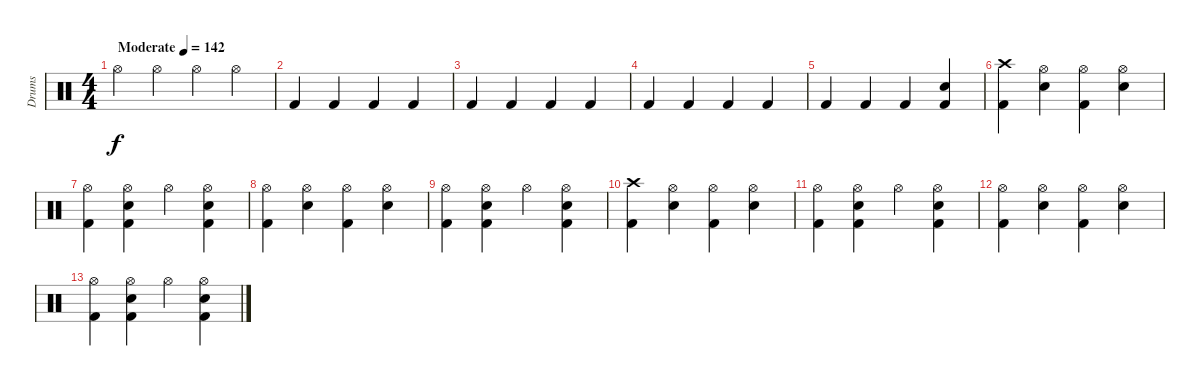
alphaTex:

\track ("Drums" "Drums") {instrument percussion}
\staff {score}
\articulation defaults
\ts (4 4)
\tempo (142 "Moderate")
\clef neutral
\ks c "Hi-Hat (open)".4{dy f} "Hi-Hat (open)".4 "Hi-Hat (open)".4 "Hi-Hat (open)".4
|
"Kick (hit) 2".4 "Kick (hit) 2".4 "Kick (hit) 2".4 "Kick (hit) 2".4 |
"Kick (hit) 2".4 "Kick (hit) 2".4 "Kick (hit) 2".4 "Kick (hit) 2".4 |
"Kick (hit) 2".4 "Kick (hit) 2".4 "Kick (hit) 2".4 "Kick (hit) 2".4 |
"Kick (hit) 2".4 "Kick (hit) 2".4 "Kick (hit) 2".4 ("Snare (hit) 2" "Kick (hit) 2").4 |
("Crash high (hit)" "Kick (hit) 2").4 ("Snare (hit) 2" "Hi-Hat (open)").4 ("Hi-Hat (open)" "Kick (hit) 2").4 ("Snare (hit) 2" "Hi-Hat (open)").4 |
("Hi-Hat (open)" "Kick (hit) 2").4 ("Snare (hit) 2" "Hi-Hat (open)" "Kick (hit) 2").4 "Hi-Hat (open)".4 ("Snare (hit) 2" "Hi-Hat (open)" "Kick (hit) 2").4 |
("Hi-Hat (open)" "Kick (hit) 2").4 ("Snare (hit) 2" "Hi-Hat (open)").4 ("Hi-Hat (open)" "Kick (hit) 2").4 ("Snare (hit) 2" "Hi-Hat (open)").4 |
("Hi-Hat (open)" "Kick (hit) 2").4 ("Snare (hit) 2" "Hi-Hat (open)" "Kick (hit) 2").4 "Hi-Hat (open)".4 ("Snare (hit) 2" "Hi-Hat (open)" "Kick (hit) 2").4 |
("Crash high (hit)" "Kick (hit) 2").4 ("Snare (hit) 2" "Hi-Hat (open)").4 ("Hi-Hat (open)" "Kick (hit) 2").4 ("Snare (hit) 2" "Hi-Hat (open)").4 |
("Hi-Hat (open)" "Kick (hit) 2").4 ("Snare (hit) 2" "Hi-Hat (open)" "Kick (hit) 2").4 "Hi-Hat (open)".4 ("Snare (hit) 2" "Hi-Hat (open)" "Kick (hit) 2").4 |
("Hi-Hat (open)" "Kick (hit) 2").4 ("Snare (hit) 2" "Hi-Hat (open)").4 ("Hi-Hat (open)" "Kick (hit) 2").4 ("Snare (hit) 2" "Hi-Hat (open)").4 |
("Hi-Hat (open)" "Kick (hit) 2").4 ("Snare (hit) 2" "Hi-Hat (open)" "Kick (hit) 2").4 "Hi-Hat (open)".4 ("Snare (hit) 2" "Hi-Hat (open)" "Kick (hit) 2").4
